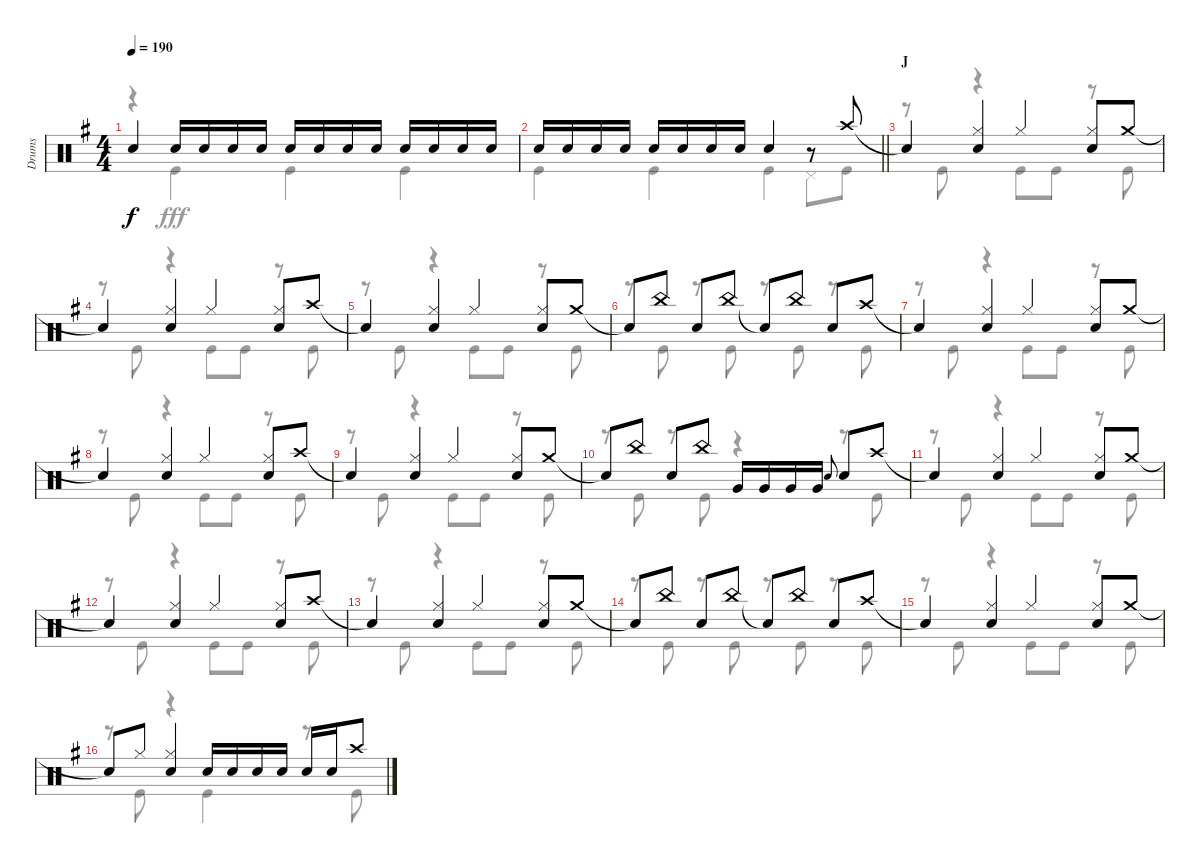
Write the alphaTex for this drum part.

\track ("Drums" "Drums") {instrument percussion}
\staff {score}
\articulation defaults
\voice
\ts (4 4)
\tempo 190
\clef neutral
\ks g "Snare (hit)"{t}.4{dy f} "Snare (hit) 2".16 "Snare (hit) 2".16 "Snare (hit) 2".16 "Snare (hit) 2".16 "Snare (hit) 2".16 "Snare (hit) 2".16 "Snare (hit) 2".16 "Snare (hit) 2".16 "Snare (hit) 2".16 "Snare (hit) 2".16 "Snare (hit) 2".16 "Snare (hit) 2".16
|
\barLineRight lightlight "Snare (hit) 2".16 "Snare (hit) 2".16 "Snare (hit) 2".16 "Snare (hit) 2".16 "Snare (hit) 2".16 "Snare (hit) 2".16 "Snare (hit) 2".16 "Snare (hit) 2".16 "Snare (hit) 2".4
r.8 "Crash high (hit)".8 |
\section ("" "J")
"Snare (hit)"{t}.4 ("Hi-Hat (closed)" "Snare (hit) 2").4 "Hi-Hat (closed)".4 ("Hi-Hat (closed)" "Snare (hit) 2").8 "Crash medium (hit)".8 |
"Snare (hit)"{t}.4 ("Hi-Hat (closed)" "Snare (hit) 2").4 "Hi-Hat (closed)".4 ("Hi-Hat (closed)" "Snare (hit) 2").8 "Crash high (hit)".8 |
"Snare (hit)"{t}.4 ("Hi-Hat (closed)" "Snare (hit) 2").4 "Hi-Hat (closed)".4 ("Hi-Hat (closed)" "Snare (hit) 2").8 "Crash medium (hit)".8 |
"Snare (hit)"{t}.8 "China (hit)".8 "Snare (hit) 2".8 "China (hit)".8 "Snare (hit)"{t}.8 "China (hit)".8 "Snare (hit) 2".8 "Crash high (hit)".8 |
"Snare (hit)"{t}.4 ("Hi-Hat (closed)" "Snare (hit) 2").4 "Hi-Hat (closed)".4 ("Hi-Hat (closed)" "Snare (hit) 2").8 "Crash medium (hit)".8 |
"Snare (hit)"{t}.4 ("Hi-Hat (closed)" "Snare (hit) 2").4 "Hi-Hat (closed)".4 ("Hi-Hat (closed)" "Snare (hit) 2").8 "Crash high (hit)".8 |
"Snare (hit)"{t}.4 ("Hi-Hat (closed)" "Snare (hit) 2").4 "Hi-Hat (closed)".4 ("Hi-Hat (closed)" "Snare (hit) 2").8 "Crash medium (hit)".8 |
"Snare (hit)"{t}.8 "China (hit)".8 "Snare (hit) 2".8 "China (hit)".8 "Very Low Tom (hit)".16 "Very Low Tom (hit)".16 "Very Low Tom (hit)".16 "Very Low Tom (hit)".16 "Snare (hit) 2".8{gr onbeat} "Snare (hit) 2".8 "Crash high (hit)".8 |
"Snare (hit)"{t}.4 ("Hi-Hat (closed)" "Snare (hit) 2").4 "Hi-Hat (closed)".4 ("Hi-Hat (closed)" "Snare (hit) 2").8 "Crash medium (hit)".8 |
"Snare (hit)"{t}.4 ("Hi-Hat (closed)" "Snare (hit) 2").4 "Hi-Hat (closed)".4 ("Hi-Hat (closed)" "Snare (hit) 2").8 "Crash high (hit)".8 |
"Snare (hit)"{t}.4 ("Hi-Hat (closed)" "Snare (hit) 2").4 "Hi-Hat (closed)".4 ("Hi-Hat (closed)" "Snare (hit) 2").8 "Crash medium (hit)".8 |
"Snare (hit)"{t}.8 "China (hit)".8 "Snare (hit) 2".8 "China (hit)".8 "Snare (hit)"{t}.8 "China (hit)".8 "Snare (hit) 2".8 "Crash high (hit)".8 |
"Snare (hit)"{t}.4 ("Hi-Hat (closed)" "Snare (hit) 2").4 "Hi-Hat (closed)".4 ("Hi-Hat (closed)" "Snare (hit) 2").8 "Crash medium (hit)".8 |
"Snare (hit)"{t}.8 "Hi-Hat (closed)".8 ("Hi-Hat (closed)" "Snare (hit) 2").4 "Snare (hit) 2".16 "Snare (hit) 2".16 "Snare (hit) 2".16 "Snare (hit) 2".16 "Snare (hit) 2".16 "Snare (hit) 2".16 "Crash high (hit)".8
\voice
\clef neutral
\ottava regular
\simile none
\ks g
r.4{dy fff} "Kick (hit)".4 "Kick (hit)".4 "Kick (hit)".4 |
\barLineRight lightlight "Kick (hit)".4 "Kick (hit)".4 "Kick (hit)".4 "Pedal Hi-Hat (hit)".8 "Kick (hit)".8
|
r.8 "Kick (hit)".8 r.4 "Kick (hit)".8 "Kick (hit)".8 r.8 "Kick (hit)".8 |
r.8 "Kick (hit)".8 r.4 "Kick (hit)".8 "Kick (hit)".8 r.8 "Kick (hit)".8 |
r.8 "Kick (hit)".8 r.4 "Kick (hit)".8 "Kick (hit)".8 r.8 "Kick (hit)".8 |
r.8 "Kick (hit)".8 r.8 "Kick (hit)".8 r.8 "Kick (hit)".8 r.8 "Kick (hit)".8 |
r.8 "Kick (hit)".8 r.4 "Kick (hit)".8 "Kick (hit)".8 r.8 "Kick (hit)".8 |
r.8 "Kick (hit)".8 r.4 "Kick (hit)".8 "Kick (hit)".8 r.8 "Kick (hit)".8 |
r.8 "Kick (hit)".8 r.4 "Kick (hit)".8 "Kick (hit)".8 r.8 "Kick (hit)".8 |
r.8 "Kick (hit)".8 r.8 "Kick (hit)".8 r.4 r.8 "Kick (hit)".8 |
r.8 "Kick (hit)".8 r.4 "Kick (hit)".8 "Kick (hit)".8 r.8 "Kick (hit)".8 |
r.8 "Kick (hit)".8 r.4 "Kick (hit)".8 "Kick (hit)".8 r.8 "Kick (hit)".8 |
r.8 "Kick (hit)".8 r.4 "Kick (hit)".8 "Kick (hit)".8 r.8 "Kick (hit)".8 |
r.8 "Kick (hit)".8 r.8 "Kick (hit)".8 r.8 "Kick (hit)".8 r.8 "Kick (hit)".8 |
r.8 "Kick (hit)".8 r.4 "Kick (hit)".8 "Kick (hit)".8 r.8 "Kick (hit)".8 |
r.8 "Kick (hit)".8 r.4 "Kick (hit)".4 r.8 "Kick (hit)".8
